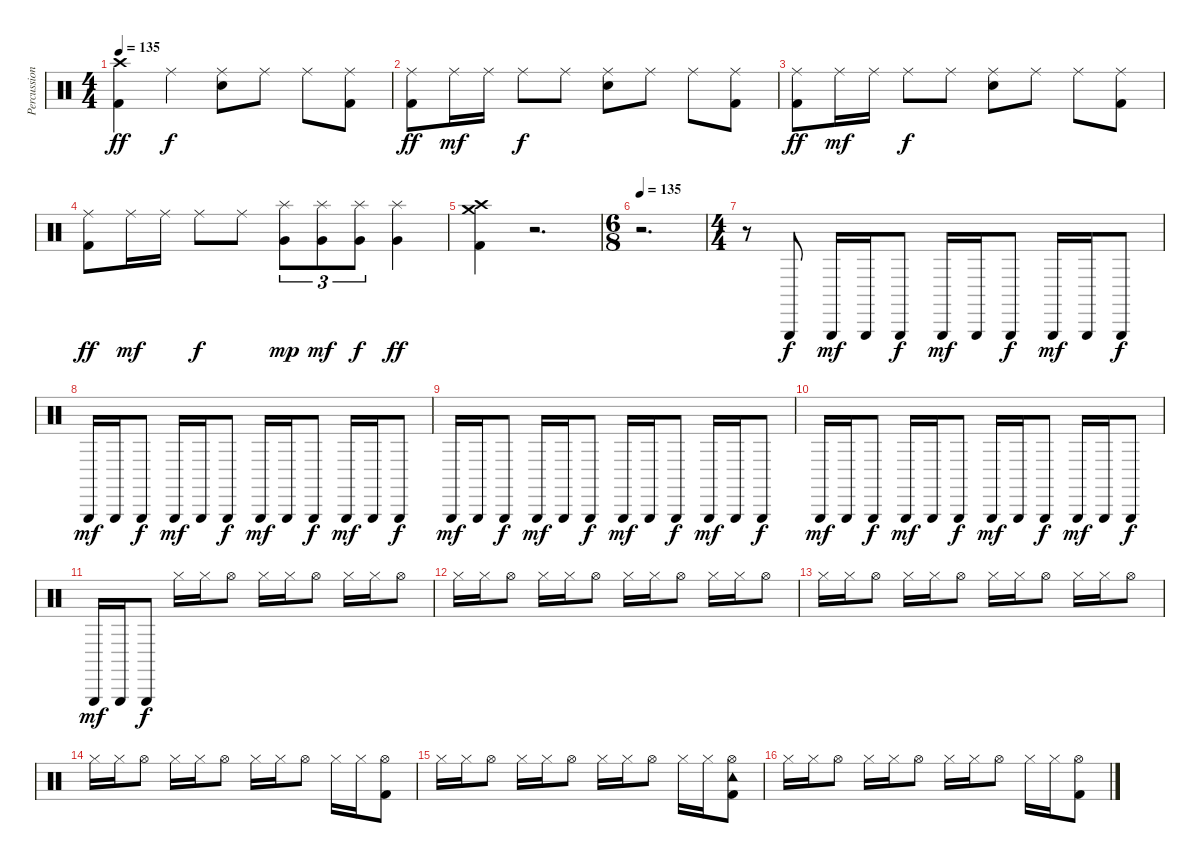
\track ("Percussion" "Percussion") {instrument percussion}
\staff {score}
\articulation defaults
\ts (4 4)
\tempo 135
\clef neutral
\ks c
("Kick (hit) 2" "Crash high (hit)").4{dy ff} "Ride (middle)".4{dy f} ("Snare (hit) 2" "Ride (middle)").8 "Ride (middle)".8 "Ride (middle)".8 ("Kick (hit) 2" "Ride (middle)").8 |
("Kick (hit) 2" "Ride (middle)").8{dy ff} "Ride (middle)".16{dy mf} "Ride (middle)".16 "Ride (middle)".8{dy f} "Ride (middle)".8 ("Snare (hit) 2" "Ride (middle)").8 "Ride (middle)".8 "Ride (middle)".8 ("Kick (hit) 2" "Ride (middle)").8 |
("Kick (hit) 2" "Ride (middle)").8{dy ff} "Ride (middle)".16{dy mf} "Ride (middle)".16 "Ride (middle)".8{dy f} "Ride (middle)".8 ("Snare (hit) 2" "Ride (middle)").8 "Ride (middle)".8 "Ride (middle)".8 ("Kick (hit) 2" "Ride (middle)").8 |
("Kick (hit) 2" "Ride (middle)").8{dy ff} "Ride (middle)".16{dy mf} "Ride (middle)".16 "Ride (middle)".8{dy f} "Ride (middle)".8 ("Very Low Tom (hit)" "Splash (hit)").8{tu (3 2) dy mp} ("Very Low Tom (hit)" "Splash (hit)").8{tu (3 2) dy mf} ("Very Low Tom (hit)" "Splash (hit)").8{tu (3 2) dy f} ("Very Low Tom (hit)" "Splash (hit)").4{dy ff} |
("Kick (hit) 2" "Crash high (hit)" "Crash medium (hit)").4 r.2{d} |
\ts (6 8)
\tempo 135
r.2{d} |
\ts (4 4)
r.8 "Triangle (hit)".8{dy f} "Triangle (hit)".16{dy mf} "Triangle (hit)".16 "Triangle (hit)".8{dy f} "Triangle (hit)".16{dy mf} "Triangle (hit)".16 "Triangle (hit)".8{dy f} "Triangle (hit)".16{dy mf} "Triangle (hit)".16 "Triangle (hit)".8{dy f} |
"Triangle (hit)".16{dy mf} "Triangle (hit)".16 "Triangle (hit)".8{dy f} "Triangle (hit)".16{dy mf} "Triangle (hit)".16 "Triangle (hit)".8{dy f} "Triangle (hit)".16{dy mf} "Triangle (hit)".16 "Triangle (hit)".8{dy f} "Triangle (hit)".16{dy mf} "Triangle (hit)".16 "Triangle (hit)".8{dy f} |
"Triangle (hit)".16{dy mf} "Triangle (hit)".16 "Triangle (hit)".8{dy f} "Triangle (hit)".16{dy mf} "Triangle (hit)".16 "Triangle (hit)".8{dy f} "Triangle (hit)".16{dy mf} "Triangle (hit)".16 "Triangle (hit)".8{dy f} "Triangle (hit)".16{dy mf} "Triangle (hit)".16 "Triangle (hit)".8{dy f} |
"Triangle (hit)".16{dy mf} "Triangle (hit)".16 "Triangle (hit)".8{dy f} "Triangle (hit)".16{dy mf} "Triangle (hit)".16 "Triangle (hit)".8{dy f} "Triangle (hit)".16{dy mf} "Triangle (hit)".16 "Triangle (hit)".8{dy f} "Triangle (hit)".16{dy mf} "Triangle (hit)".16 "Triangle (hit)".8{dy f} |
"Triangle (hit)".16{dy mf} "Triangle (hit)".16 "Triangle (hit)".8{dy f} "Hi-Hat (closed)".16 "Hi-Hat (closed)".16 "Hi-Hat (open)".8 "Hi-Hat (closed)".16 "Hi-Hat (closed)".16 "Hi-Hat (open)".8 "Hi-Hat (closed)".16 "Hi-Hat (closed)".16 "Hi-Hat (open)".8 |
"Hi-Hat (closed)".16 "Hi-Hat (closed)".16 "Hi-Hat (open)".8 "Hi-Hat (closed)".16 "Hi-Hat (closed)".16 "Hi-Hat (open)".8 "Hi-Hat (closed)".16 "Hi-Hat (closed)".16 "Hi-Hat (open)".8 "Hi-Hat (closed)".16 "Hi-Hat (closed)".16 "Hi-Hat (open)".8 |
"Hi-Hat (closed)".16 "Hi-Hat (closed)".16 "Hi-Hat (open)".8 "Hi-Hat (closed)".16 "Hi-Hat (closed)".16 "Hi-Hat (open)".8 "Hi-Hat (closed)".16 "Hi-Hat (closed)".16 "Hi-Hat (open)".8 "Hi-Hat (closed)".16 "Hi-Hat (closed)".16 "Hi-Hat (open)".8 |
"Hi-Hat (closed)".16 "Hi-Hat (closed)".16 "Hi-Hat (open)".8 "Hi-Hat (closed)".16 "Hi-Hat (closed)".16 "Hi-Hat (open)".8 "Hi-Hat (closed)".16 "Hi-Hat (closed)".16 "Hi-Hat (open)".8 "Hi-Hat (closed)".16 "Hi-Hat (closed)".16 ("Kick (hit) 2" "Hi-Hat (open)").8 |
"Hi-Hat (closed)".16 "Hi-Hat (closed)".16 "Hi-Hat (open)".8 "Hi-Hat (closed)".16 "Hi-Hat (closed)".16 "Hi-Hat (open)".8 "Hi-Hat (closed)".16 "Hi-Hat (closed)".16 "Hi-Hat (open)".8 "Hi-Hat (closed)".16 "Hi-Hat (closed)".16 ("Kick (hit) 2" "Hi-Hat (open)" "Tambourine (hit)").8 |
"Hi-Hat (closed)".16 "Hi-Hat (closed)".16 "Hi-Hat (open)".8 "Hi-Hat (closed)".16 "Hi-Hat (closed)".16 "Hi-Hat (open)".8 "Hi-Hat (closed)".16 "Hi-Hat (closed)".16 "Hi-Hat (open)".8 "Hi-Hat (closed)".16 "Hi-Hat (closed)".16 ("Kick (hit) 2" "Hi-Hat (open)").8
